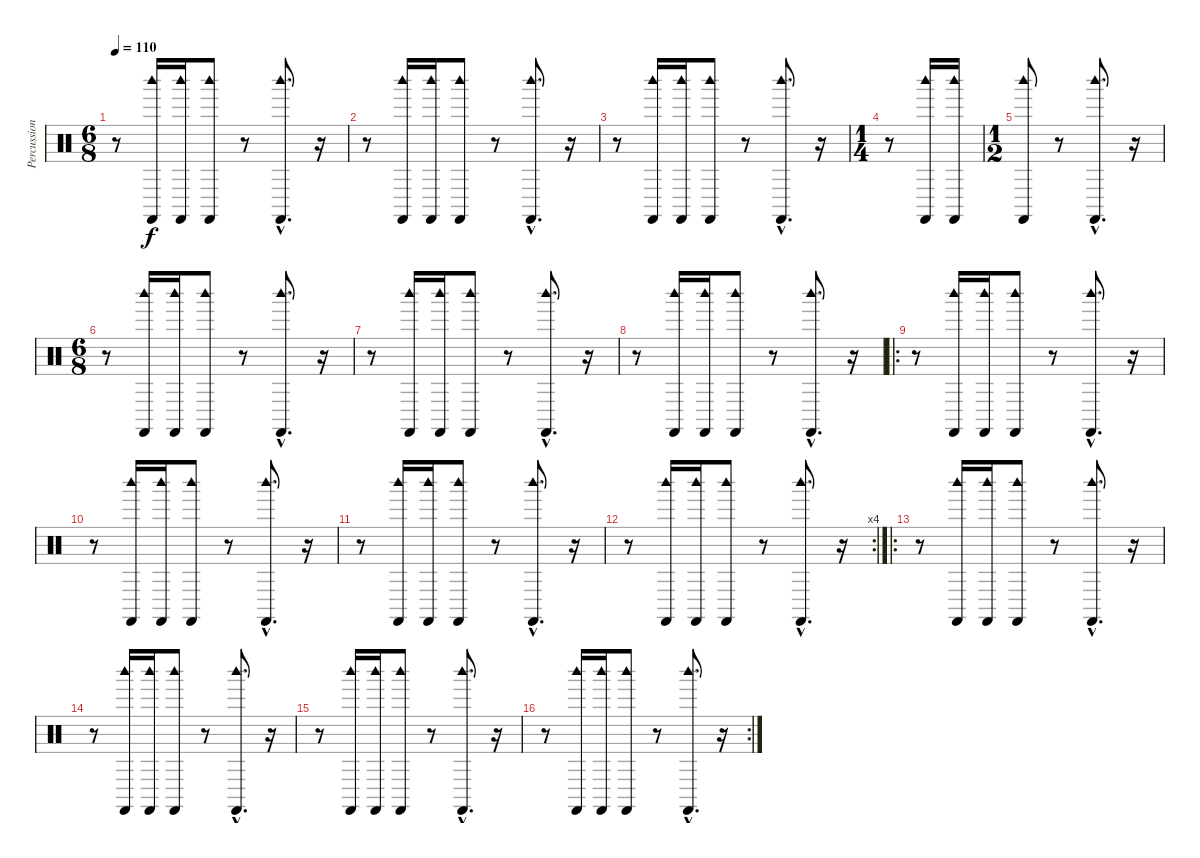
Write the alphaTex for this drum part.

\track ("Percussion" "Percussion") {instrument percussion}
\staff {score}
\articulation defaults
\ts (6 8)
\tempo 110
\clef neutral
\ks c
r.8{dy f} ("Woodblock high (hit)" "Castanets (hit)").16 ("Woodblock high (hit)" "Castanets (hit)").16 ("Woodblock high (hit)" "Castanets (hit)").8 r.8 ("Woodblock high (hit)"{hac} "Castanets (hit)"{hac}).8{d} r.16 |
r.8 ("Woodblock high (hit)" "Castanets (hit)").16 ("Woodblock high (hit)" "Castanets (hit)").16 ("Woodblock high (hit)" "Castanets (hit)").8 r.8 ("Woodblock high (hit)"{hac} "Castanets (hit)"{hac}).8{d} r.16 |
r.8 ("Woodblock high (hit)" "Castanets (hit)").16 ("Woodblock high (hit)" "Castanets (hit)").16 ("Woodblock high (hit)" "Castanets (hit)").8 r.8 ("Woodblock high (hit)"{hac} "Castanets (hit)"{hac}).8{d} r.16 |
\ts (1 4)
r.8 ("Woodblock high (hit)" "Castanets (hit)").16 ("Woodblock high (hit)" "Castanets (hit)").16 |
\ts (1 2)
("Woodblock high (hit)" "Castanets (hit)").8 r.8 ("Woodblock high (hit)"{hac} "Castanets (hit)"{hac}).8{d} r.16 |
\ts (6 8)
r.8 ("Woodblock high (hit)" "Castanets (hit)").16 ("Woodblock high (hit)" "Castanets (hit)").16 ("Woodblock high (hit)" "Castanets (hit)").8 r.8 ("Woodblock high (hit)"{hac} "Castanets (hit)"{hac}).8{d} r.16 |
r.8 ("Woodblock high (hit)" "Castanets (hit)").16 ("Woodblock high (hit)" "Castanets (hit)").16 ("Woodblock high (hit)" "Castanets (hit)").8 r.8 ("Woodblock high (hit)"{hac} "Castanets (hit)"{hac}).8{d} r.16 |
r.8 ("Woodblock high (hit)" "Castanets (hit)").16 ("Woodblock high (hit)" "Castanets (hit)").16 ("Woodblock high (hit)" "Castanets (hit)").8 r.8 ("Woodblock high (hit)"{hac} "Castanets (hit)"{hac}).8{d} r.16 |
\ro
r.8 ("Woodblock high (hit)" "Castanets (hit)").16 ("Woodblock high (hit)" "Castanets (hit)").16 ("Woodblock high (hit)" "Castanets (hit)").8 r.8 ("Woodblock high (hit)"{hac} "Castanets (hit)"{hac}).8{d} r.16 |
r.8 ("Woodblock high (hit)" "Castanets (hit)").16 ("Woodblock high (hit)" "Castanets (hit)").16 ("Woodblock high (hit)" "Castanets (hit)").8 r.8 ("Woodblock high (hit)"{hac} "Castanets (hit)"{hac}).8{d} r.16 |
r.8 ("Woodblock high (hit)" "Castanets (hit)").16 ("Woodblock high (hit)" "Castanets (hit)").16 ("Woodblock high (hit)" "Castanets (hit)").8 r.8 ("Woodblock high (hit)"{hac} "Castanets (hit)"{hac}).8{d} r.16 |
\rc 4
r.8 ("Woodblock high (hit)" "Castanets (hit)").16 ("Woodblock high (hit)" "Castanets (hit)").16 ("Woodblock high (hit)" "Castanets (hit)").8 r.8 ("Woodblock high (hit)"{hac} "Castanets (hit)"{hac}).8{d} r.16 |
\ro
r.8 ("Woodblock high (hit)" "Castanets (hit)").16 ("Woodblock high (hit)" "Castanets (hit)").16 ("Woodblock high (hit)" "Castanets (hit)").8 r.8 ("Woodblock high (hit)"{hac} "Castanets (hit)"{hac}).8{d} r.16 |
r.8 ("Woodblock high (hit)" "Castanets (hit)").16 ("Woodblock high (hit)" "Castanets (hit)").16 ("Woodblock high (hit)" "Castanets (hit)").8 r.8 ("Woodblock high (hit)"{hac} "Castanets (hit)"{hac}).8{d} r.16 |
r.8 ("Woodblock high (hit)" "Castanets (hit)").16 ("Woodblock high (hit)" "Castanets (hit)").16 ("Woodblock high (hit)" "Castanets (hit)").8 r.8 ("Woodblock high (hit)"{hac} "Castanets (hit)"{hac}).8{d} r.16 |
\rc 2
r.8 ("Woodblock high (hit)" "Castanets (hit)").16 ("Woodblock high (hit)" "Castanets (hit)").16 ("Woodblock high (hit)" "Castanets (hit)").8 r.8 ("Woodblock high (hit)"{hac} "Castanets (hit)"{hac}).8{d} r.16
